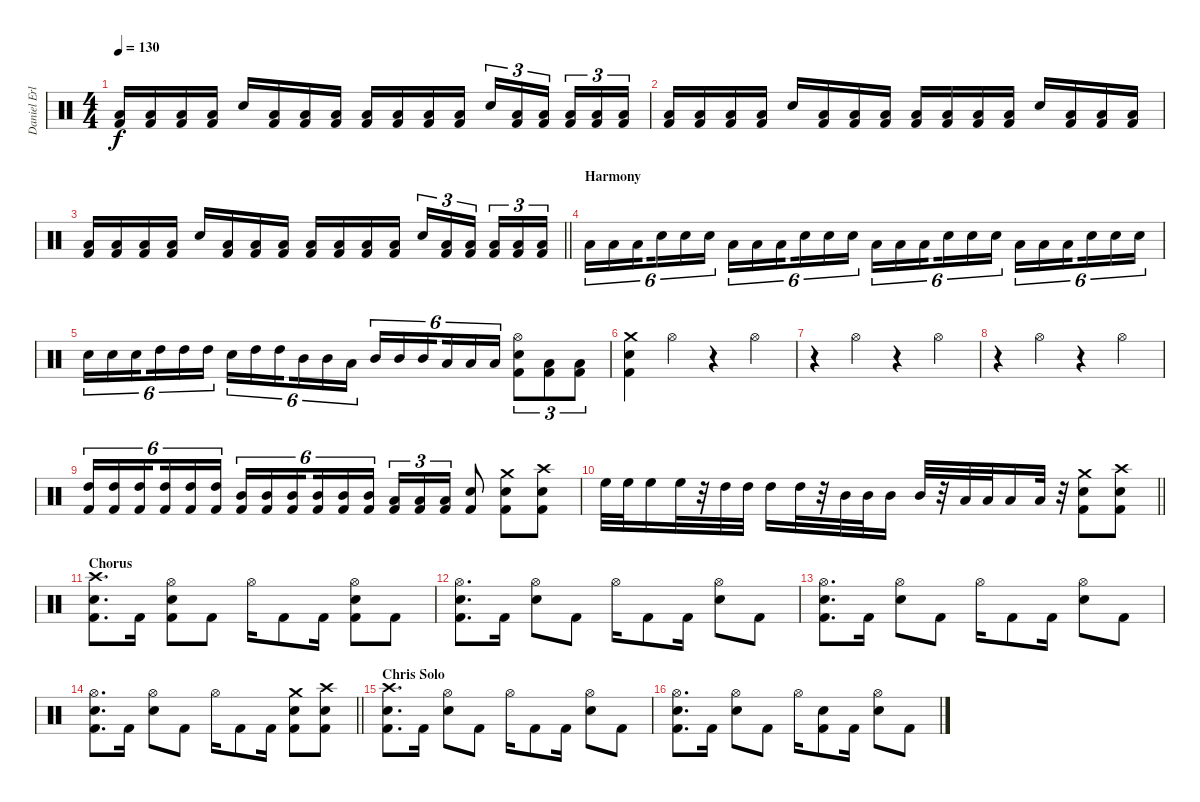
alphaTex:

\track ("Daniel Erlandsson" "Daniel Erl") {instrument percussion}
\staff {score}
\articulation defaults
\ts (4 4)
\tempo 130
\clef neutral
\ks c
("Low Floor Tom (hit)" "Kick (hit) 2").16{dy f} ("Low Floor Tom (hit)" "Kick (hit) 2").16 ("Low Floor Tom (hit)" "Kick (hit) 2").16 ("Low Floor Tom (hit)" "Kick (hit) 2").16 "Snare (hit) 2".16 ("Low Floor Tom (hit)" "Kick (hit) 2").16 ("Low Floor Tom (hit)" "Kick (hit) 2").16 ("Low Floor Tom (hit)" "Kick (hit) 2").16 ("Low Floor Tom (hit)" "Kick (hit) 2").16 ("Low Floor Tom (hit)" "Kick (hit) 2").16 ("Low Floor Tom (hit)" "Kick (hit) 2").16 ("Low Floor Tom (hit)" "Kick (hit) 2").16 "Snare (hit) 2".16{tu (3 2)} ("Low Floor Tom (hit)" "Kick (hit) 2").16{tu (3 2)} ("Low Floor Tom (hit)" "Kick (hit) 2").16{tu (3 2) beam splitsecondary} ("Low Floor Tom (hit)" "Kick (hit) 2").16{tu (3 2)} ("Low Floor Tom (hit)" "Kick (hit) 2").16{tu (3 2)} ("Low Floor Tom (hit)" "Kick (hit) 2").16{tu (3 2)} |
("Low Floor Tom (hit)" "Kick (hit) 2").16 ("Low Floor Tom (hit)" "Kick (hit) 2").16 ("Low Floor Tom (hit)" "Kick (hit) 2").16 ("Low Floor Tom (hit)" "Kick (hit) 2").16 "Snare (hit) 2".16 ("Low Floor Tom (hit)" "Kick (hit) 2").16 ("Low Floor Tom (hit)" "Kick (hit) 2").16 ("Low Floor Tom (hit)" "Kick (hit) 2").16 ("Low Floor Tom (hit)" "Kick (hit) 2").16 ("Low Floor Tom (hit)" "Kick (hit) 2").16 ("Low Floor Tom (hit)" "Kick (hit) 2").16 ("Low Floor Tom (hit)" "Kick (hit) 2").16 "Snare (hit) 2".16 ("Low Floor Tom (hit)" "Kick (hit) 2").16 ("Low Floor Tom (hit)" "Kick (hit) 2").16 ("Low Floor Tom (hit)" "Kick (hit) 2").16 |
\barLineRight lightlight
("Low Floor Tom (hit)" "Kick (hit) 2").16 ("Low Floor Tom (hit)" "Kick (hit) 2").16 ("Low Floor Tom (hit)" "Kick (hit) 2").16 ("Low Floor Tom (hit)" "Kick (hit) 2").16 "Snare (hit) 2".16 ("Low Floor Tom (hit)" "Kick (hit) 2").16 ("Low Floor Tom (hit)" "Kick (hit) 2").16 ("Low Floor Tom (hit)" "Kick (hit) 2").16 ("Low Floor Tom (hit)" "Kick (hit) 2").16 ("Low Floor Tom (hit)" "Kick (hit) 2").16 ("Low Floor Tom (hit)" "Kick (hit) 2").16 ("Low Floor Tom (hit)" "Kick (hit) 2").16 "Snare (hit) 2".16{tu (3 2)} ("Low Floor Tom (hit)" "Kick (hit) 2").16{tu (3 2)} ("Low Floor Tom (hit)" "Kick (hit) 2").16{tu (3 2) beam splitsecondary} ("Low Floor Tom (hit)" "Kick (hit) 2").16{tu (3 2)} ("Low Floor Tom (hit)" "Kick (hit) 2").16{tu (3 2)} ("Low Floor Tom (hit)" "Kick (hit) 2").16{tu (3 2)} |
\section ("" "Harmony")
"Low Floor Tom (hit)".16{tu (6 4)} "Low Floor Tom (hit)".16{tu (6 4)} "Low Floor Tom (hit)".16{tu (6 4) beam splitsecondary} "Snare (hit) 2".16{tu (6 4)} "Snare (hit) 2".16{tu (6 4)} "Snare (hit) 2".16{tu (6 4)} "Low Floor Tom (hit)".16{tu (6 4)} "Low Floor Tom (hit)".16{tu (6 4)} "Low Floor Tom (hit)".16{tu (6 4) beam splitsecondary} "Snare (hit) 2".16{tu (6 4)} "Snare (hit) 2".16{tu (6 4)} "Snare (hit) 2".16{tu (6 4)} "Low Floor Tom (hit)".16{tu (6 4)} "Low Floor Tom (hit)".16{tu (6 4)} "Low Floor Tom (hit)".16{tu (6 4) beam splitsecondary} "Snare (hit) 2".16{tu (6 4)} "Snare (hit) 2".16{tu (6 4)} "Snare (hit) 2".16{tu (6 4)} "Low Floor Tom (hit)".16{tu (6 4)} "Low Floor Tom (hit)".16{tu (6 4)} "Low Floor Tom (hit)".16{tu (6 4) beam splitsecondary} "Snare (hit) 2".16{tu (6 4)} "Snare (hit) 2".16{tu (6 4)} "Snare (hit) 2".16{tu (6 4)} |
"Snare (hit) 2".16{tu (6 4)} "Snare (hit) 2".16{tu (6 4)} "Snare (hit) 2".16{tu (6 4) beam splitsecondary} "High Tom (hit)".16{tu (6 4)} "High Tom (hit)".16{tu (6 4)} "High Tom (hit)".16{tu (6 4)} "Snare (hit) 2".16{tu (6 4)} "High Tom (hit)".16{tu (6 4)} "High Tom (hit)".16{tu (6 4) beam splitsecondary} "Mid Tom (hit)".16{tu (6 4)} "Mid Tom (hit)".16{tu (6 4)} "Low Tom (hit)".16{tu (6 4)} "Mid Tom (hit)".16{tu (6 4)} "Mid Tom (hit)".16{tu (6 4)} "Mid Tom (hit)".16{tu (6 4) beam splitsecondary} "Low Tom (hit)".16{tu (6 4)} "Low Tom (hit)".16{tu (6 4)} "Low Tom (hit)".16{tu (6 4)} ("Hi-Hat (open)" "Snare (hit) 2" "Kick (hit) 2").8{tu (3 2)} ("Low Floor Tom (hit)" "Kick (hit) 2").8{tu (3 2)} ("Low Floor Tom (hit)" "Kick (hit) 2").8{tu (3 2)} |
("Crash medium (hit)" "Snare (hit) 2" "Kick (hit) 2").4 "Hi-Hat (open)".4 r.4 "Hi-Hat (open)".4 |
r.4 "Hi-Hat (open)".4 r.4 "Hi-Hat (open)".4 |
r.4 "Hi-Hat (open)".4 r.4 "Hi-Hat (open)".4 |
("High Tom (hit)" "Kick (hit) 2").16{tu (6 4)} ("High Tom (hit)" "Kick (hit) 2").16{tu (6 4)} ("High Tom (hit)" "Kick (hit) 2").16{tu (6 4) beam splitsecondary} ("High Tom (hit)" "Kick (hit) 2").16{tu (6 4)} ("High Tom (hit)" "Kick (hit) 2").16{tu (6 4)} ("High Tom (hit)" "Kick (hit) 2").16{tu (6 4)} ("Mid Tom (hit)" "Kick (hit) 2").16{tu (6 4)} ("Mid Tom (hit)" "Kick (hit) 2").16{tu (6 4)} ("Mid Tom (hit)" "Kick (hit) 2").16{tu (6 4) beam splitsecondary} ("Mid Tom (hit)" "Kick (hit) 2").16{tu (6 4)} ("Mid Tom (hit)" "Kick (hit) 2").16{tu (6 4)} ("Mid Tom (hit)" "Kick (hit) 2").16{tu (6 4)} ("Low Tom (hit)" "Kick (hit) 2").16{tu (3 2)} ("Low Tom (hit)" "Kick (hit) 2").16{tu (3 2)} ("Low Tom (hit)" "Kick (hit) 2").16{tu (3 2)} ("Snare (hit) 2" "Kick (hit) 2").8 ("Crash medium (hit)" "Snare (hit) 2" "Kick (hit) 2").8 ("Crash high (hit)" "Snare (hit) 2" "Kick (hit) 2").8 |
\barLineRight lightlight "High Floor Tom (hit)".32{balance 16} "High Floor Tom (hit)".32{balance 0} "High Floor Tom (hit)".16 "High Floor Tom (hit)".32
r.32 "High Tom (hit)".32 "High Tom (hit)".32 "High Tom (hit)".16 "High Tom (hit)".32 r.32 "Mid Tom (hit)".32 "Mid Tom (hit)".32 "Mid Tom (hit)".16 "Mid Tom (hit)".32 r.32 "Low Tom (hit)".32 "Low Tom (hit)".32 "Low Tom (hit)".16 "Low Tom (hit)".32 r.32 ("Crash medium (hit)" "Snare (hit) 2" "Kick (hit) 2").8{balance 8} ("Crash high (hit)" "Snare (hit) 2" "Kick (hit) 2").8 |
\section ("" "Chorus")
("Crash high (hit)" "Snare (hit) 2" "Kick (hit) 2").8{d} "Kick (hit) 2".16 ("Hi-Hat (open)" "Snare (hit) 2" "Kick (hit) 2").8 "Kick (hit) 2".8 "Hi-Hat (open)".16 "Kick (hit) 2".8 "Kick (hit) 2".16 ("Hi-Hat (open)" "Snare (hit) 2" "Kick (hit) 2").8 "Kick (hit) 2".8 |
("Hi-Hat (open)" "Snare (hit) 2" "Kick (hit) 2").8{d} "Kick (hit) 2".16 ("Hi-Hat (open)" "Snare (hit) 2").8 "Kick (hit) 2".8 "Hi-Hat (open)".16 "Kick (hit) 2".8 "Kick (hit) 2".16 ("Hi-Hat (open)" "Snare (hit) 2").8 "Kick (hit) 2".8 |
("Hi-Hat (open)" "Snare (hit) 2" "Kick (hit) 2").8{d} "Kick (hit) 2".16 ("Hi-Hat (open)" "Snare (hit) 2").8 "Kick (hit) 2".8 "Hi-Hat (open)".16 "Kick (hit) 2".8 "Kick (hit) 2".16 ("Hi-Hat (open)" "Snare (hit) 2").8 "Kick (hit) 2".8 |
\barLineRight lightlight
("Hi-Hat (open)" "Snare (hit) 2" "Kick (hit) 2").8{d} "Kick (hit) 2".16 ("Hi-Hat (open)" "Snare (hit) 2").8 "Kick (hit) 2".8 "Hi-Hat (open)".16 "Kick (hit) 2".8 "Kick (hit) 2".16 ("Crash medium (hit)" "Snare (hit) 2" "Kick (hit) 2").8 ("Crash high (hit)" "Snare (hit) 2" "Kick (hit) 2").8 |
\section ("" "Chris Solo")
("Crash high (hit)" "Snare (hit) 2" "Kick (hit) 2").8{d} "Kick (hit) 2".16 ("Hi-Hat (open)" "Snare (hit) 2").8 "Kick (hit) 2".8 "Hi-Hat (open)".16 "Kick (hit) 2".8 "Kick (hit) 2".16 ("Hi-Hat (open)" "Snare (hit) 2").8 "Kick (hit) 2".8 |
("Hi-Hat (open)" "Snare (hit) 2" "Kick (hit) 2").8{d} "Kick (hit) 2".16 ("Hi-Hat (open)" "Snare (hit) 2").8 "Kick (hit) 2".8 "Hi-Hat (open)".16 ("Snare (hit) 2" "Kick (hit) 2").8 "Kick (hit) 2".16 ("Hi-Hat (open)" "Snare (hit) 2").8 "Kick (hit) 2".8
